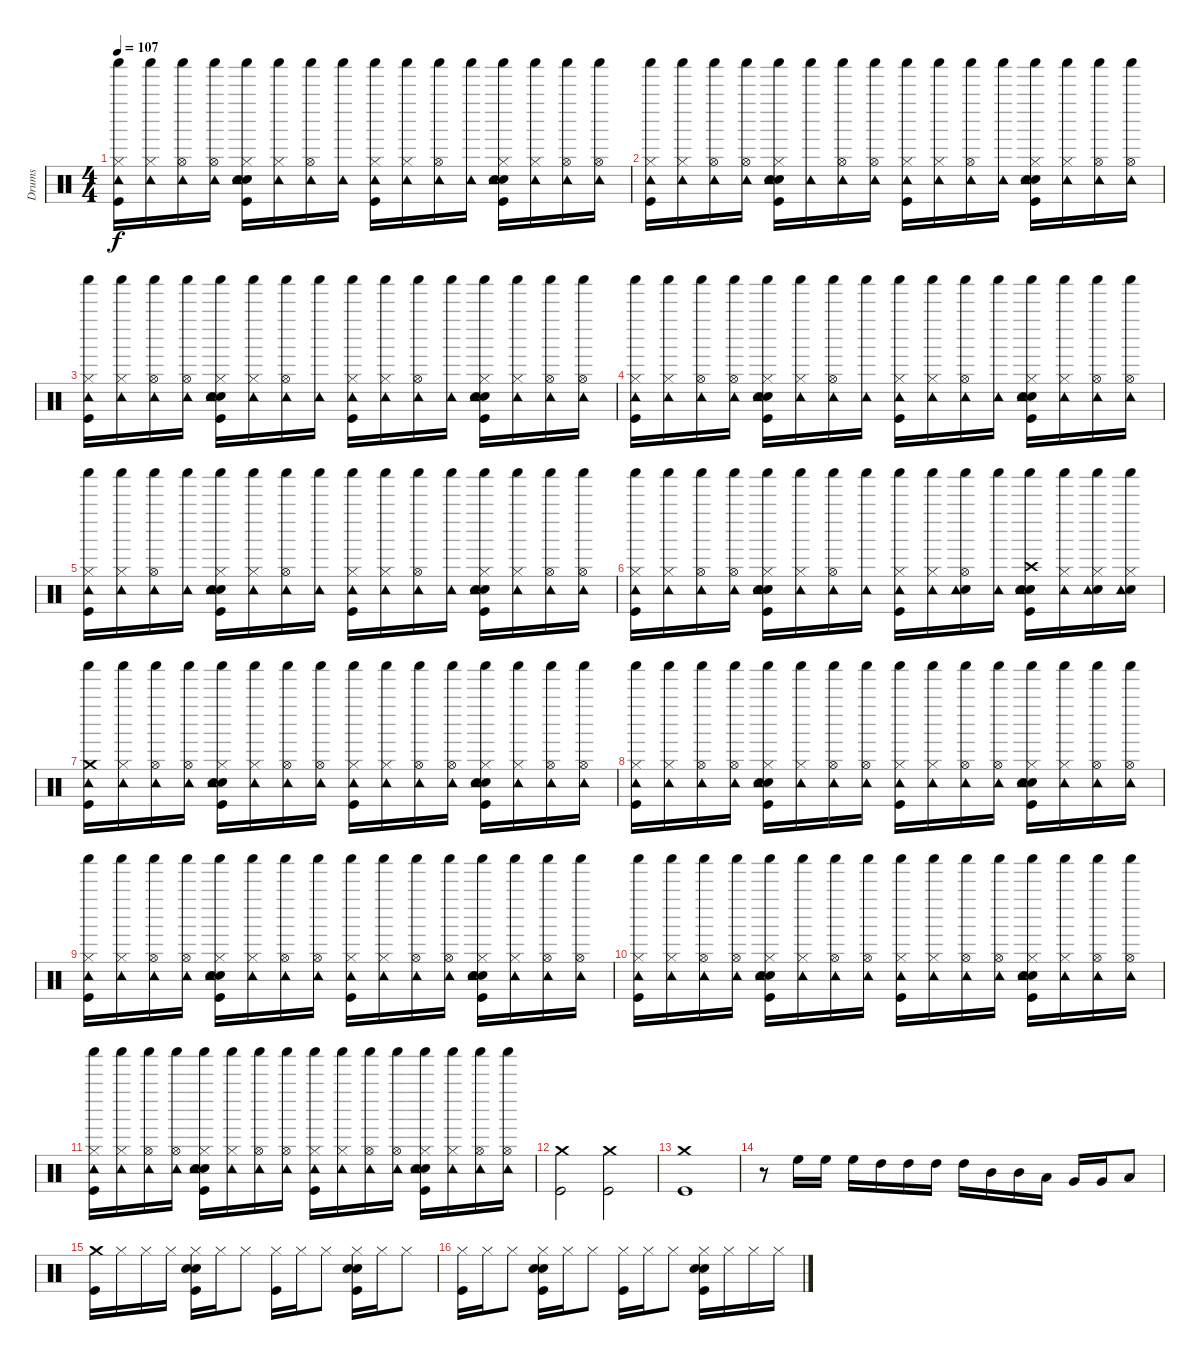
\track ("Drums" "Drums") {instrument percussion}
\staff {score}
\articulation defaults
\ts (4 4)
\tempo 107
\clef neutral
\ks c
("Kick (hit)" "Hi-Hat (closed)" "Tambourine (hit)" "Shaker (hit)").16{dy f} ("Hi-Hat (closed)" "Tambourine (hit)" "Shaker (hit)").16 ("Hi-Hat (open)" "Tambourine (hit)" "Shaker (hit)").16 ("Hi-Hat (open)" "Tambourine (hit)" "Shaker (hit)").16 ("Kick (hit)" "Snare (hit) 2" "Hand Clap (hit)" "Hi-Hat (closed)" "Tambourine (hit)" "Shaker (hit)").16 ("Hi-Hat (closed)" "Tambourine (hit)" "Shaker (hit)").16 ("Hi-Hat (open)" "Tambourine (hit)" "Shaker (hit)").16 ("Tambourine (hit)" "Shaker (hit)").16 ("Kick (hit)" "Hi-Hat (closed)" "Tambourine (hit)" "Shaker (hit)").16 ("Hi-Hat (closed)" "Tambourine (hit)" "Shaker (hit)").16 ("Hi-Hat (open)" "Tambourine (hit)" "Shaker (hit)").16 ("Tambourine (hit)" "Shaker (hit)").16 ("Kick (hit)" "Snare (hit) 2" "Hand Clap (hit)" "Hi-Hat (closed)" "Tambourine (hit)" "Shaker (hit)").16 ("Hi-Hat (closed)" "Tambourine (hit)" "Shaker (hit)").16 ("Hi-Hat (open)" "Tambourine (hit)" "Shaker (hit)").16 ("Hi-Hat (open)" "Tambourine (hit)" "Shaker (hit)").16 |
("Kick (hit)" "Hi-Hat (closed)" "Tambourine (hit)" "Shaker (hit)").16 ("Hi-Hat (closed)" "Tambourine (hit)" "Shaker (hit)").16 ("Hi-Hat (open)" "Tambourine (hit)" "Shaker (hit)").16 ("Hi-Hat (open)" "Tambourine (hit)" "Shaker (hit)").16 ("Kick (hit)" "Snare (hit) 2" "Hand Clap (hit)" "Hi-Hat (closed)" "Tambourine (hit)" "Shaker (hit)").16 ("Tambourine (hit)" "Shaker (hit)").16 ("Hi-Hat (open)" "Tambourine (hit)" "Shaker (hit)").16 ("Hi-Hat (open)" "Tambourine (hit)" "Shaker (hit)").16 ("Kick (hit)" "Hi-Hat (closed)" "Tambourine (hit)" "Shaker (hit)").16 ("Hi-Hat (closed)" "Tambourine (hit)" "Shaker (hit)").16 ("Hi-Hat (open)" "Tambourine (hit)" "Shaker (hit)").16 ("Tambourine (hit)" "Shaker (hit)").16 ("Kick (hit)" "Snare (hit) 2" "Hand Clap (hit)" "Hi-Hat (closed)" "Tambourine (hit)" "Shaker (hit)").16 ("Hi-Hat (closed)" "Tambourine (hit)" "Shaker (hit)").16 ("Hi-Hat (open)" "Tambourine (hit)" "Shaker (hit)").16 ("Hi-Hat (open)" "Tambourine (hit)" "Shaker (hit)").16 |
("Kick (hit)" "Hi-Hat (closed)" "Tambourine (hit)" "Shaker (hit)").16 ("Hi-Hat (closed)" "Tambourine (hit)" "Shaker (hit)").16 ("Hi-Hat (open)" "Tambourine (hit)" "Shaker (hit)").16 ("Hi-Hat (open)" "Tambourine (hit)" "Shaker (hit)").16 ("Kick (hit)" "Snare (hit) 2" "Hand Clap (hit)" "Hi-Hat (closed)" "Tambourine (hit)" "Shaker (hit)").16 ("Hi-Hat (closed)" "Tambourine (hit)" "Shaker (hit)").16 ("Hi-Hat (open)" "Tambourine (hit)" "Shaker (hit)").16 ("Tambourine (hit)" "Shaker (hit)").16 ("Kick (hit)" "Hi-Hat (closed)" "Tambourine (hit)" "Shaker (hit)").16 ("Hi-Hat (closed)" "Tambourine (hit)" "Shaker (hit)").16 ("Hi-Hat (open)" "Tambourine (hit)" "Shaker (hit)").16 ("Tambourine (hit)" "Shaker (hit)").16 ("Kick (hit)" "Snare (hit) 2" "Hand Clap (hit)" "Hi-Hat (closed)" "Tambourine (hit)" "Shaker (hit)").16 ("Hi-Hat (closed)" "Tambourine (hit)" "Shaker (hit)").16 ("Hi-Hat (open)" "Tambourine (hit)" "Shaker (hit)").16 ("Hi-Hat (open)" "Tambourine (hit)" "Shaker (hit)").16 |
("Kick (hit)" "Hi-Hat (closed)" "Tambourine (hit)" "Shaker (hit)").16 ("Hi-Hat (closed)" "Tambourine (hit)" "Shaker (hit)").16 ("Hi-Hat (open)" "Tambourine (hit)" "Shaker (hit)").16 ("Hi-Hat (open)" "Tambourine (hit)" "Shaker (hit)").16 ("Kick (hit)" "Snare (hit) 2" "Hand Clap (hit)" "Hi-Hat (closed)" "Tambourine (hit)" "Shaker (hit)").16 ("Hi-Hat (closed)" "Tambourine (hit)" "Shaker (hit)").16 ("Hi-Hat (open)" "Tambourine (hit)" "Shaker (hit)").16 ("Tambourine (hit)" "Shaker (hit)").16 ("Kick (hit)" "Hi-Hat (closed)" "Tambourine (hit)" "Shaker (hit)").16 ("Hi-Hat (closed)" "Tambourine (hit)" "Shaker (hit)").16 ("Hi-Hat (open)" "Tambourine (hit)" "Shaker (hit)").16 ("Tambourine (hit)" "Shaker (hit)").16 ("Kick (hit)" "Snare (hit) 2" "Hand Clap (hit)" "Hi-Hat (closed)" "Tambourine (hit)" "Shaker (hit)").16 ("Hi-Hat (closed)" "Tambourine (hit)" "Shaker (hit)").16 ("Hi-Hat (open)" "Tambourine (hit)" "Shaker (hit)").16 ("Hi-Hat (open)" "Tambourine (hit)" "Shaker (hit)").16 |
("Kick (hit)" "Hi-Hat (closed)" "Tambourine (hit)" "Shaker (hit)").16 ("Hi-Hat (closed)" "Tambourine (hit)" "Shaker (hit)").16 ("Hi-Hat (open)" "Tambourine (hit)" "Shaker (hit)").16 ("Tambourine (hit)" "Shaker (hit)").16 ("Kick (hit)" "Snare (hit) 2" "Hand Clap (hit)" "Hi-Hat (closed)" "Tambourine (hit)" "Shaker (hit)").16 ("Hi-Hat (closed)" "Tambourine (hit)" "Shaker (hit)").16 ("Hi-Hat (open)" "Tambourine (hit)" "Shaker (hit)").16 ("Tambourine (hit)" "Shaker (hit)").16 ("Kick (hit)" "Hi-Hat (closed)" "Tambourine (hit)" "Shaker (hit)").16 ("Hi-Hat (closed)" "Tambourine (hit)" "Shaker (hit)").16 ("Hi-Hat (open)" "Tambourine (hit)" "Shaker (hit)").16 ("Tambourine (hit)" "Shaker (hit)").16 ("Kick (hit)" "Snare (hit) 2" "Hand Clap (hit)" "Hi-Hat (closed)" "Tambourine (hit)" "Shaker (hit)").16 ("Hi-Hat (closed)" "Tambourine (hit)" "Shaker (hit)").16 ("Hi-Hat (open)" "Tambourine (hit)" "Shaker (hit)").16 ("Hi-Hat (open)" "Tambourine (hit)" "Shaker (hit)").16 |
("Kick (hit)" "Hi-Hat (closed)" "Tambourine (hit)" "Shaker (hit)").16 ("Hi-Hat (closed)" "Tambourine (hit)" "Shaker (hit)").16 ("Hi-Hat (open)" "Tambourine (hit)" "Shaker (hit)").16 ("Hi-Hat (open)" "Tambourine (hit)" "Shaker (hit)").16 ("Kick (hit)" "Snare (hit) 2" "Hand Clap (hit)" "Hi-Hat (closed)" "Tambourine (hit)" "Shaker (hit)").16 ("Hi-Hat (closed)" "Tambourine (hit)" "Shaker (hit)").16 ("Hi-Hat (open)" "Tambourine (hit)" "Shaker (hit)").16 ("Tambourine (hit)" "Shaker (hit)").16 ("Kick (hit)" "Hi-Hat (closed)" "Tambourine (hit)" "Shaker (hit)").16 ("Hi-Hat (closed)" "Tambourine (hit)" "Shaker (hit)").16 ("Hand Clap (hit)" "Hi-Hat (open)" "Tambourine (hit)" "Shaker (hit)").16 ("Tambourine (hit)" "Shaker (hit)").16 ("Kick (hit)" "Snare (hit) 2" "Hand Clap (hit)" "Crash high (hit)" "Tambourine (hit)" "Shaker (hit)").16 ("Hi-Hat (closed)" "Tambourine (hit)" "Shaker (hit)").16 ("Snare (hit) 2" "Hi-Hat (closed)" "Tambourine (hit)" "Shaker (hit)").16 ("Snare (hit) 2" "Hi-Hat (closed)" "Tambourine (hit)" "Shaker (hit)").16 |
("Kick (hit)" "Tambourine (hit)" "Crash medium (hit)" "Shaker (hit)").16 ("Hi-Hat (closed)" "Tambourine (hit)" "Shaker (hit)").16 ("Hi-Hat (open)" "Tambourine (hit)" "Shaker (hit)").16 ("Hi-Hat (open)" "Tambourine (hit)" "Shaker (hit)").16 ("Kick (hit)" "Snare (hit) 2" "Hand Clap (hit)" "Hi-Hat (closed)" "Tambourine (hit)" "Shaker (hit)").16 ("Hi-Hat (closed)" "Tambourine (hit)" "Shaker (hit)").16 ("Hi-Hat (open)" "Tambourine (hit)" "Shaker (hit)").16 ("Hi-Hat (open)" "Tambourine (hit)" "Shaker (hit)").16 ("Kick (hit)" "Hi-Hat (closed)" "Tambourine (hit)" "Shaker (hit)").16 ("Hi-Hat (closed)" "Tambourine (hit)" "Shaker (hit)").16 ("Hi-Hat (open)" "Tambourine (hit)" "Shaker (hit)").16 ("Hi-Hat (open)" "Tambourine (hit)" "Shaker (hit)").16 ("Kick (hit)" "Snare (hit) 2" "Hand Clap (hit)" "Hi-Hat (closed)" "Tambourine (hit)" "Shaker (hit)").16 ("Hi-Hat (closed)" "Tambourine (hit)" "Shaker (hit)").16 ("Hi-Hat (open)" "Tambourine (hit)" "Shaker (hit)").16 ("Hi-Hat (open)" "Tambourine (hit)" "Shaker (hit)").16 |
("Kick (hit)" "Hi-Hat (closed)" "Tambourine (hit)" "Shaker (hit)").16 ("Hi-Hat (closed)" "Tambourine (hit)" "Shaker (hit)").16 ("Hi-Hat (open)" "Tambourine (hit)" "Shaker (hit)").16 ("Hi-Hat (open)" "Tambourine (hit)" "Shaker (hit)").16 ("Kick (hit)" "Snare (hit) 2" "Hand Clap (hit)" "Hi-Hat (closed)" "Tambourine (hit)" "Shaker (hit)").16 ("Hi-Hat (closed)" "Tambourine (hit)" "Shaker (hit)").16 ("Hi-Hat (open)" "Tambourine (hit)" "Shaker (hit)").16 ("Hi-Hat (open)" "Tambourine (hit)" "Shaker (hit)").16 ("Kick (hit)" "Hi-Hat (closed)" "Tambourine (hit)" "Shaker (hit)").16 ("Hi-Hat (closed)" "Tambourine (hit)" "Shaker (hit)").16 ("Hi-Hat (open)" "Tambourine (hit)" "Shaker (hit)").16 ("Hi-Hat (open)" "Tambourine (hit)" "Shaker (hit)").16 ("Kick (hit)" "Snare (hit) 2" "Hand Clap (hit)" "Hi-Hat (closed)" "Tambourine (hit)" "Shaker (hit)").16 ("Hi-Hat (closed)" "Tambourine (hit)" "Shaker (hit)").16 ("Hi-Hat (open)" "Tambourine (hit)" "Shaker (hit)").16 ("Hi-Hat (open)" "Tambourine (hit)" "Shaker (hit)").16 |
("Kick (hit)" "Hi-Hat (closed)" "Tambourine (hit)" "Shaker (hit)").16 ("Hi-Hat (closed)" "Tambourine (hit)" "Shaker (hit)").16 ("Hi-Hat (open)" "Tambourine (hit)" "Shaker (hit)").16 ("Hi-Hat (open)" "Tambourine (hit)" "Shaker (hit)").16 ("Kick (hit)" "Snare (hit) 2" "Hand Clap (hit)" "Hi-Hat (closed)" "Tambourine (hit)" "Shaker (hit)").16 ("Hi-Hat (closed)" "Tambourine (hit)" "Shaker (hit)").16 ("Hi-Hat (open)" "Tambourine (hit)" "Shaker (hit)").16 ("Hi-Hat (open)" "Tambourine (hit)" "Shaker (hit)").16 ("Kick (hit)" "Hi-Hat (closed)" "Tambourine (hit)" "Shaker (hit)").16 ("Hi-Hat (closed)" "Tambourine (hit)" "Shaker (hit)").16 ("Hi-Hat (open)" "Tambourine (hit)" "Shaker (hit)").16 ("Hi-Hat (open)" "Tambourine (hit)" "Shaker (hit)").16 ("Kick (hit)" "Snare (hit) 2" "Hand Clap (hit)" "Hi-Hat (closed)" "Tambourine (hit)" "Shaker (hit)").16 ("Hi-Hat (closed)" "Tambourine (hit)" "Shaker (hit)").16 ("Hi-Hat (open)" "Tambourine (hit)" "Shaker (hit)").16 ("Hi-Hat (open)" "Tambourine (hit)" "Shaker (hit)").16 |
("Kick (hit)" "Hi-Hat (closed)" "Tambourine (hit)" "Shaker (hit)").16 ("Hi-Hat (closed)" "Tambourine (hit)" "Shaker (hit)").16 ("Hi-Hat (open)" "Tambourine (hit)" "Shaker (hit)").16 ("Hi-Hat (open)" "Tambourine (hit)" "Shaker (hit)").16 ("Kick (hit)" "Snare (hit) 2" "Hand Clap (hit)" "Hi-Hat (closed)" "Tambourine (hit)" "Shaker (hit)").16 ("Hi-Hat (closed)" "Tambourine (hit)" "Shaker (hit)").16 ("Hi-Hat (open)" "Tambourine (hit)" "Shaker (hit)").16 ("Hi-Hat (open)" "Tambourine (hit)" "Shaker (hit)").16 ("Kick (hit)" "Hi-Hat (closed)" "Tambourine (hit)" "Shaker (hit)").16 ("Hi-Hat (closed)" "Tambourine (hit)" "Shaker (hit)").16 ("Hi-Hat (open)" "Tambourine (hit)" "Shaker (hit)").16 ("Hi-Hat (open)" "Tambourine (hit)" "Shaker (hit)").16 ("Kick (hit)" "Snare (hit) 2" "Hand Clap (hit)" "Hi-Hat (closed)" "Tambourine (hit)" "Shaker (hit)").16 ("Hi-Hat (closed)" "Tambourine (hit)" "Shaker (hit)").16 ("Hi-Hat (open)" "Tambourine (hit)" "Shaker (hit)").16 ("Hi-Hat (open)" "Tambourine (hit)" "Shaker (hit)").16 |
("Kick (hit)" "Hi-Hat (closed)" "Tambourine (hit)" "Shaker (hit)").16 ("Hi-Hat (closed)" "Tambourine (hit)" "Shaker (hit)").16 ("Hi-Hat (open)" "Tambourine (hit)" "Shaker (hit)").16 ("Hi-Hat (open)" "Tambourine (hit)" "Shaker (hit)").16 ("Kick (hit)" "Snare (hit) 2" "Hand Clap (hit)" "Hi-Hat (closed)" "Tambourine (hit)" "Shaker (hit)").16 ("Hi-Hat (closed)" "Tambourine (hit)" "Shaker (hit)").16 ("Hi-Hat (open)" "Tambourine (hit)" "Shaker (hit)").16 ("Hi-Hat (open)" "Tambourine (hit)" "Shaker (hit)").16 ("Kick (hit)" "Hi-Hat (closed)" "Tambourine (hit)" "Shaker (hit)").16 ("Hi-Hat (closed)" "Tambourine (hit)" "Shaker (hit)").16 ("Hi-Hat (open)" "Tambourine (hit)" "Shaker (hit)").16 ("Hi-Hat (open)" "Tambourine (hit)" "Shaker (hit)").16 ("Kick (hit)" "Snare (hit) 2" "Hand Clap (hit)" "Hi-Hat (closed)" "Tambourine (hit)" "Shaker (hit)").16 ("Hi-Hat (closed)" "Tambourine (hit)" "Shaker (hit)").16 ("Hi-Hat (open)" "Tambourine (hit)" "Shaker (hit)").16 ("Hi-Hat (open)" "Tambourine (hit)" "Shaker (hit)").16 |
("Kick (hit)" "Crash medium (hit)").2 ("Kick (hit)" "Crash medium (hit)").2 |
("Kick (hit)" "Crash medium (hit)").1 |
r.8 "High Floor Tom (hit)".16 "High Floor Tom (hit)".16 "High Floor Tom (hit)".16 "High Tom (hit)".16 "High Tom (hit)".16 "High Tom (hit)".16 "High Tom (hit)".16 "Mid Tom (hit)".16 "Mid Tom (hit)".16 "Low Tom (hit)".16 "Very Low Tom (hit)".16 "Very Low Tom (hit)".16 "Low Floor Tom (hit)".8 |
("Kick (hit)" "Crash medium (hit)").16 "Hi-Hat (closed)".16 "Hi-Hat (closed)".16 "Hi-Hat (closed)".16 ("Kick (hit)" "Snare (hit) 2" "Hand Clap (hit)" "Hi-Hat (closed)").16 "Hi-Hat (closed)".16 "Hi-Hat (closed)".8 ("Kick (hit)" "Hi-Hat (closed)").16 "Hi-Hat (closed)".16 "Hi-Hat (closed)".8 ("Kick (hit)" "Snare (hit) 2" "Hand Clap (hit)" "Hi-Hat (closed)").16 "Hi-Hat (closed)".16 "Hi-Hat (closed)".8 |
("Kick (hit)" "Hi-Hat (closed)").16 "Hi-Hat (closed)".16 "Hi-Hat (closed)".8 ("Kick (hit)" "Snare (hit) 2" "Hand Clap (hit)" "Hi-Hat (closed)").16 "Hi-Hat (closed)".16 "Hi-Hat (closed)".8 ("Kick (hit)" "Hi-Hat (closed)").16 "Hi-Hat (closed)".16 "Hi-Hat (closed)".8 ("Kick (hit)" "Snare (hit) 2" "Hand Clap (hit)" "Hi-Hat (closed)").16 "Hi-Hat (closed)".16 "Hi-Hat (closed)".16 "Hi-Hat (closed)".16
